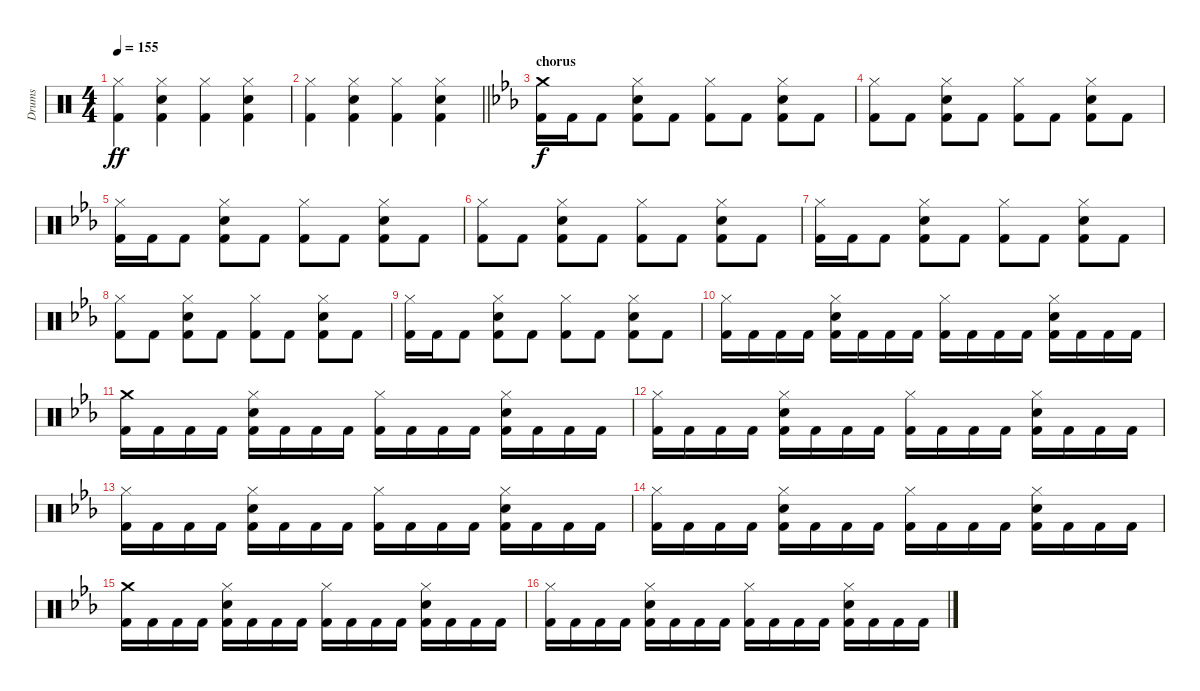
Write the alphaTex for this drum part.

\track ("Drums" "Drums") {instrument percussion}
\staff {score}
\articulation defaults
\ts (4 4)
\tempo 155
\clef neutral
\ks aminor
("Hi-Hat (closed)" "Kick (hit) 2").4{dy ff} ("Hi-Hat (closed)" "Electric Snare (hit)" "Kick (hit) 2").4 ("Hi-Hat (closed)" "Kick (hit) 2").4 ("Hi-Hat (closed)" "Electric Snare (hit)" "Kick (hit) 2").4 |
\barLineRight lightlight
("Hi-Hat (closed)" "Kick (hit) 2").4 ("Hi-Hat (closed)" "Electric Snare (hit)" "Kick (hit) 2").4 ("Hi-Hat (closed)" "Kick (hit) 2").4 ("Hi-Hat (closed)" "Electric Snare (hit)" "Kick (hit) 2").4 |
\section ("" "chorus")
\ks cminor
("Crash medium (hit)" "Kick (hit) 2").16{dy f} "Kick (hit) 2".16 "Kick (hit) 2".8 ("Hi-Hat (closed)" "Electric Snare (hit)" "Kick (hit) 2").8 "Kick (hit) 2".8 ("Hi-Hat (closed)" "Kick (hit) 2").8 "Kick (hit) 2".8 ("Hi-Hat (closed)" "Electric Snare (hit)" "Kick (hit) 2").8 "Kick (hit) 2".8 |
("Hi-Hat (closed)" "Kick (hit) 2").8 "Kick (hit) 2".8 ("Hi-Hat (closed)" "Electric Snare (hit)" "Kick (hit) 2").8 "Kick (hit) 2".8 ("Hi-Hat (closed)" "Kick (hit) 2").8 "Kick (hit) 2".8 ("Hi-Hat (closed)" "Electric Snare (hit)" "Kick (hit) 2").8 "Kick (hit) 2".8 |
("Kick (hit) 2" "Hi-Hat (closed)").16 "Kick (hit) 2".16 "Kick (hit) 2".8 ("Hi-Hat (closed)" "Electric Snare (hit)" "Kick (hit) 2").8 "Kick (hit) 2".8 ("Hi-Hat (closed)" "Kick (hit) 2").8 "Kick (hit) 2".8 ("Hi-Hat (closed)" "Electric Snare (hit)" "Kick (hit) 2").8 "Kick (hit) 2".8 |
("Hi-Hat (closed)" "Kick (hit) 2").8 "Kick (hit) 2".8 ("Hi-Hat (closed)" "Electric Snare (hit)" "Kick (hit) 2").8 "Kick (hit) 2".8 ("Hi-Hat (closed)" "Kick (hit) 2").8 "Kick (hit) 2".8 ("Hi-Hat (closed)" "Electric Snare (hit)" "Kick (hit) 2").8 "Kick (hit) 2".8 |
("Kick (hit) 2" "Hi-Hat (closed)").16 "Kick (hit) 2".16 "Kick (hit) 2".8 ("Hi-Hat (closed)" "Electric Snare (hit)" "Kick (hit) 2").8 "Kick (hit) 2".8 ("Hi-Hat (closed)" "Kick (hit) 2").8 "Kick (hit) 2".8 ("Hi-Hat (closed)" "Electric Snare (hit)" "Kick (hit) 2").8 "Kick (hit) 2".8 |
("Hi-Hat (closed)" "Kick (hit) 2").8 "Kick (hit) 2".8 ("Hi-Hat (closed)" "Electric Snare (hit)" "Kick (hit) 2").8 "Kick (hit) 2".8 ("Hi-Hat (closed)" "Kick (hit) 2").8 "Kick (hit) 2".8 ("Hi-Hat (closed)" "Electric Snare (hit)" "Kick (hit) 2").8 "Kick (hit) 2".8 |
("Kick (hit) 2" "Hi-Hat (closed)").16 "Kick (hit) 2".16 "Kick (hit) 2".8 ("Hi-Hat (closed)" "Electric Snare (hit)" "Kick (hit) 2").8 "Kick (hit) 2".8 ("Hi-Hat (closed)" "Kick (hit) 2").8 "Kick (hit) 2".8 ("Hi-Hat (closed)" "Electric Snare (hit)" "Kick (hit) 2").8 "Kick (hit) 2".8 |
("Hi-Hat (closed)" "Kick (hit) 2").16 "Kick (hit) 2".16 "Kick (hit) 2".16 "Kick (hit) 2".16 ("Hi-Hat (closed)" "Electric Snare (hit)" "Kick (hit) 2").16 "Kick (hit) 2".16 "Kick (hit) 2".16 "Kick (hit) 2".16 ("Hi-Hat (closed)" "Kick (hit) 2").16 "Kick (hit) 2".16 "Kick (hit) 2".16 "Kick (hit) 2".16 ("Hi-Hat (closed)" "Electric Snare (hit)" "Kick (hit) 2").16 "Kick (hit) 2".16 "Kick (hit) 2".16 "Kick (hit) 2".16 |
("Crash medium (hit)" "Kick (hit) 2").16 "Kick (hit) 2".16 "Kick (hit) 2".16 "Kick (hit) 2".16 ("Hi-Hat (closed)" "Electric Snare (hit)" "Kick (hit) 2").16 "Kick (hit) 2".16 "Kick (hit) 2".16 "Kick (hit) 2".16 ("Hi-Hat (closed)" "Kick (hit) 2").16 "Kick (hit) 2".16 "Kick (hit) 2".16 "Kick (hit) 2".16 ("Hi-Hat (closed)" "Electric Snare (hit)" "Kick (hit) 2").16 "Kick (hit) 2".16 "Kick (hit) 2".16 "Kick (hit) 2".16 |
("Hi-Hat (closed)" "Kick (hit) 2").16 "Kick (hit) 2".16 "Kick (hit) 2".16 "Kick (hit) 2".16 ("Hi-Hat (closed)" "Electric Snare (hit)" "Kick (hit) 2").16 "Kick (hit) 2".16 "Kick (hit) 2".16 "Kick (hit) 2".16 ("Hi-Hat (closed)" "Kick (hit) 2").16 "Kick (hit) 2".16 "Kick (hit) 2".16 "Kick (hit) 2".16 ("Hi-Hat (closed)" "Electric Snare (hit)" "Kick (hit) 2").16 "Kick (hit) 2".16 "Kick (hit) 2".16 "Kick (hit) 2".16 |
("Hi-Hat (closed)" "Kick (hit) 2").16 "Kick (hit) 2".16 "Kick (hit) 2".16 "Kick (hit) 2".16 ("Hi-Hat (closed)" "Electric Snare (hit)" "Kick (hit) 2").16 "Kick (hit) 2".16 "Kick (hit) 2".16 "Kick (hit) 2".16 ("Hi-Hat (closed)" "Kick (hit) 2").16 "Kick (hit) 2".16 "Kick (hit) 2".16 "Kick (hit) 2".16 ("Hi-Hat (closed)" "Electric Snare (hit)" "Kick (hit) 2").16 "Kick (hit) 2".16 "Kick (hit) 2".16 "Kick (hit) 2".16 |
("Hi-Hat (closed)" "Kick (hit) 2").16 "Kick (hit) 2".16 "Kick (hit) 2".16 "Kick (hit) 2".16 ("Hi-Hat (closed)" "Electric Snare (hit)" "Kick (hit) 2").16 "Kick (hit) 2".16 "Kick (hit) 2".16 "Kick (hit) 2".16 ("Hi-Hat (closed)" "Kick (hit) 2").16 "Kick (hit) 2".16 "Kick (hit) 2".16 "Kick (hit) 2".16 ("Hi-Hat (closed)" "Electric Snare (hit)" "Kick (hit) 2").16 "Kick (hit) 2".16 "Kick (hit) 2".16 "Kick (hit) 2".16 |
("Crash medium (hit)" "Kick (hit) 2").16 "Kick (hit) 2".16 "Kick (hit) 2".16 "Kick (hit) 2".16 ("Hi-Hat (closed)" "Electric Snare (hit)" "Kick (hit) 2").16 "Kick (hit) 2".16 "Kick (hit) 2".16 "Kick (hit) 2".16 ("Hi-Hat (closed)" "Kick (hit) 2").16 "Kick (hit) 2".16 "Kick (hit) 2".16 "Kick (hit) 2".16 ("Hi-Hat (closed)" "Electric Snare (hit)" "Kick (hit) 2").16 "Kick (hit) 2".16 "Kick (hit) 2".16 "Kick (hit) 2".16 |
("Hi-Hat (closed)" "Kick (hit) 2").16 "Kick (hit) 2".16 "Kick (hit) 2".16 "Kick (hit) 2".16 ("Hi-Hat (closed)" "Electric Snare (hit)" "Kick (hit) 2").16 "Kick (hit) 2".16 "Kick (hit) 2".16 "Kick (hit) 2".16 ("Hi-Hat (closed)" "Kick (hit) 2").16 "Kick (hit) 2".16 "Kick (hit) 2".16 "Kick (hit) 2".16 ("Hi-Hat (closed)" "Electric Snare (hit)" "Kick (hit) 2").16 "Kick (hit) 2".16 "Kick (hit) 2".16 "Kick (hit) 2".16
